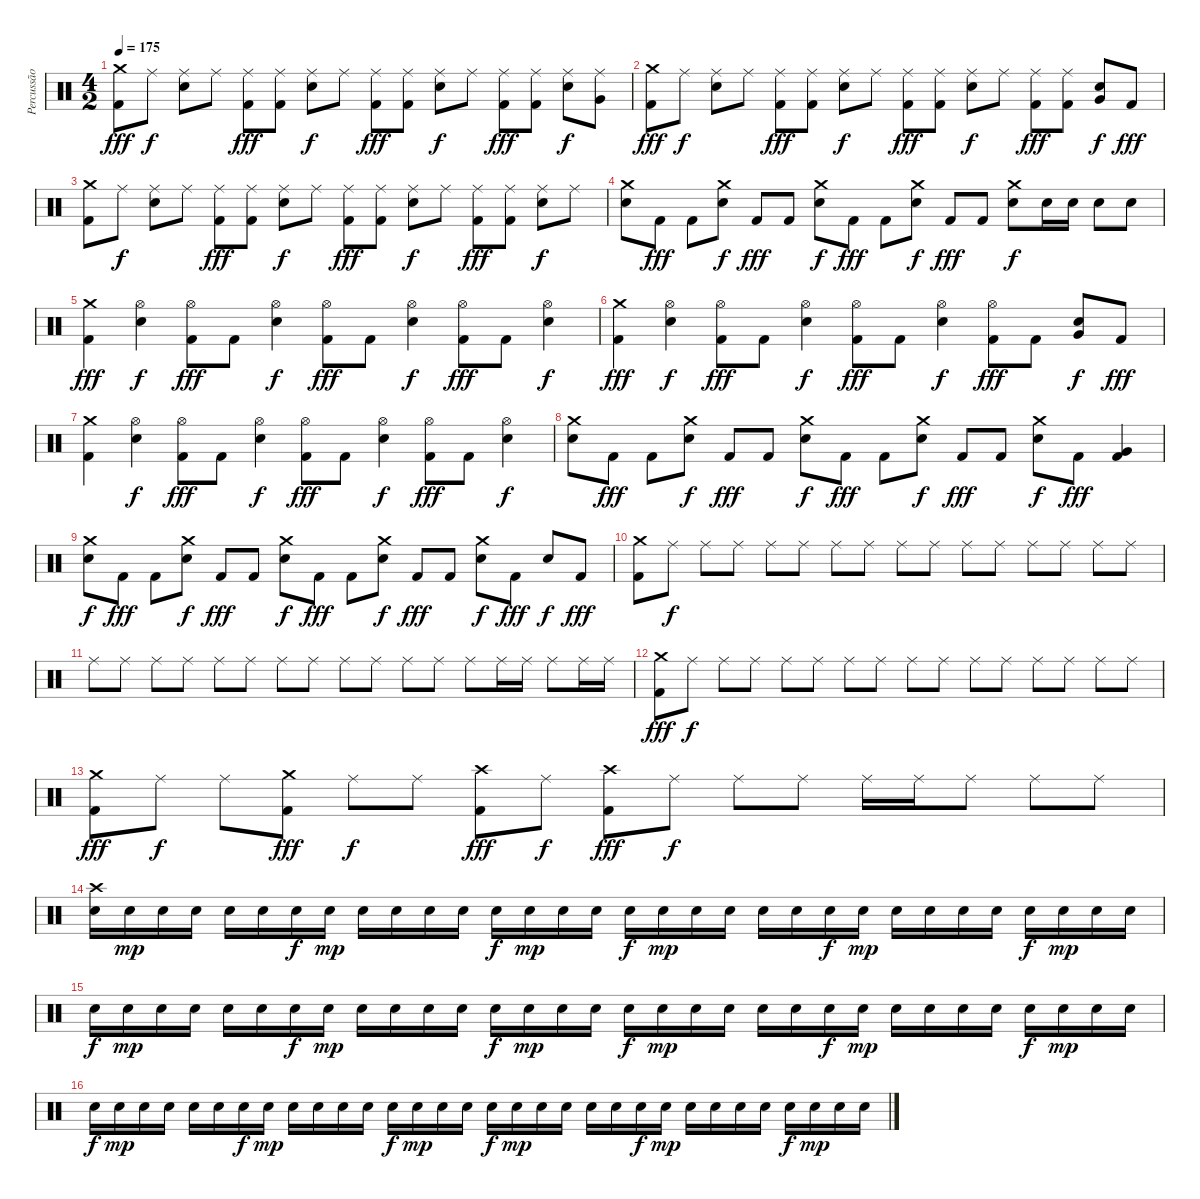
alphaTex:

\track ("Percussão" "Percussão") {instrument percussion}
\staff {score}
\articulation defaults
\ts (4 2)
\tempo 175
\clef neutral
\ks c
("Crash medium (hit)" "Kick (hit) 2").8{dy fff} "Ride (middle)".8{dy f} ("Ride (middle)" "Electric Snare (hit)").8 "Ride (middle)".8 ("Ride (middle)" "Kick (hit) 2").8{dy fff} ("Ride (middle)" "Kick (hit) 2").8 ("Ride (middle)" "Electric Snare (hit)").8{dy f} "Ride (middle)".8 ("Ride (middle)" "Kick (hit) 2").8{dy fff} ("Ride (middle)" "Kick (hit) 2").8 ("Ride (middle)" "Electric Snare (hit)").8{dy f} "Ride (middle)".8 ("Ride (middle)" "Kick (hit) 2").8{dy fff} ("Ride (middle)" "Kick (hit) 2").8 ("Ride (middle)" "Electric Snare (hit)").8{dy f} ("Ride (middle)" "Very Low Tom (hit)").8 |
("Crash medium (hit)" "Kick (hit) 2").8{dy fff} "Ride (middle)".8{dy f} ("Ride (middle)" "Electric Snare (hit)").8 "Ride (middle)".8 ("Ride (middle)" "Kick (hit) 2").8{dy fff} ("Ride (middle)" "Kick (hit) 2").8 ("Ride (middle)" "Electric Snare (hit)").8{dy f} "Ride (middle)".8 ("Ride (middle)" "Kick (hit) 2").8{dy fff} ("Ride (middle)" "Kick (hit) 2").8 ("Ride (middle)" "Electric Snare (hit)").8{dy f} "Ride (middle)".8 ("Ride (middle)" "Kick (hit) 2").8{dy fff} ("Ride (middle)" "Kick (hit) 2").8 ("Very Low Tom (hit)" "Electric Snare (hit)").8{dy f} "Kick (hit) 2".8{dy fff} |
("Crash medium (hit)" "Kick (hit) 2").8 "Ride (middle)".8{dy f} ("Ride (middle)" "Electric Snare (hit)").8 "Ride (middle)".8 ("Ride (middle)" "Kick (hit) 2").8{dy fff} ("Ride (middle)" "Kick (hit) 2").8 ("Ride (middle)" "Electric Snare (hit)").8{dy f} "Ride (middle)".8 ("Ride (middle)" "Kick (hit) 2").8{dy fff} ("Ride (middle)" "Kick (hit) 2").8 ("Ride (middle)" "Electric Snare (hit)").8{dy f} "Ride (middle)".8 ("Ride (middle)" "Kick (hit) 2").8{dy fff} ("Ride (middle)" "Kick (hit) 2").8 ("Ride (middle)" "Electric Snare (hit)").8{dy f} "Ride (middle)".8 |
("Crash medium (hit)" "Electric Snare (hit)").8 "Kick (hit) 2".8{dy fff} "Kick (hit) 2".8 ("Crash medium (hit)" "Electric Snare (hit)").8{dy f} "Kick (hit) 2".8{dy fff} "Kick (hit) 2".8 ("Crash medium (hit)" "Electric Snare (hit)").8{dy f} "Kick (hit) 2".8{dy fff} "Kick (hit) 2".8 ("Crash medium (hit)" "Electric Snare (hit)").8{dy f} "Kick (hit) 2".8{dy fff} "Kick (hit) 2".8 ("Crash medium (hit)" "Electric Snare (hit)").8{dy f} "Electric Snare (hit)".16 "Electric Snare (hit)".16 "Electric Snare (hit)".8 "Electric Snare (hit)".8 |
("Crash medium (hit)" "Kick (hit) 2").4{dy fff} ("Hi-Hat (open)" "Electric Snare (hit)").4{dy f} ("Hi-Hat (open)" "Kick (hit) 2").8{dy fff} "Kick (hit) 2".8 ("Hi-Hat (open)" "Electric Snare (hit)").4{dy f} ("Hi-Hat (open)" "Kick (hit) 2").8{dy fff} "Kick (hit) 2".8 ("Hi-Hat (open)" "Electric Snare (hit)").4{dy f} ("Hi-Hat (open)" "Kick (hit) 2").8{dy fff} "Kick (hit) 2".8 ("Hi-Hat (open)" "Electric Snare (hit)").4{dy f} |
("Crash medium (hit)" "Kick (hit) 2").4{dy fff} ("Hi-Hat (open)" "Electric Snare (hit)").4{dy f} ("Hi-Hat (open)" "Kick (hit) 2").8{dy fff} "Kick (hit) 2".8 ("Hi-Hat (open)" "Electric Snare (hit)").4{dy f} ("Hi-Hat (open)" "Kick (hit) 2").8{dy fff} "Kick (hit) 2".8 ("Hi-Hat (open)" "Electric Snare (hit)").4{dy f} ("Hi-Hat (open)" "Kick (hit) 2").8{dy fff} "Kick (hit) 2".8 ("Very Low Tom (hit)" "Electric Snare (hit)").8{dy f} "Kick (hit) 2".8{dy fff} |
("Crash medium (hit)" "Kick (hit) 2").4 ("Hi-Hat (open)" "Electric Snare (hit)").4{dy f} ("Hi-Hat (open)" "Kick (hit) 2").8{dy fff} "Kick (hit) 2".8 ("Hi-Hat (open)" "Electric Snare (hit)").4{dy f} ("Hi-Hat (open)" "Kick (hit) 2").8{dy fff} "Kick (hit) 2".8 ("Hi-Hat (open)" "Electric Snare (hit)").4{dy f} ("Hi-Hat (open)" "Kick (hit) 2").8{dy fff} "Kick (hit) 2".8 ("Hi-Hat (open)" "Electric Snare (hit)").4{dy f} |
("Crash medium (hit)" "Electric Snare (hit)").8 "Kick (hit) 2".8{dy fff} "Kick (hit) 2".8 ("Crash medium (hit)" "Electric Snare (hit)").8{dy f} "Kick (hit) 2".8{dy fff} "Kick (hit) 2".8 ("Crash medium (hit)" "Electric Snare (hit)").8{dy f} "Kick (hit) 2".8{dy fff} "Kick (hit) 2".8 ("Crash medium (hit)" "Electric Snare (hit)").8{dy f} "Kick (hit) 2".8{dy fff} "Kick (hit) 2".8 ("Crash medium (hit)" "Electric Snare (hit)").8{dy f} "Kick (hit) 2".8{dy fff} ("Very Low Tom (hit)" "Kick (hit) 2").4 |
("Crash medium (hit)" "Electric Snare (hit)").8{dy f} "Kick (hit) 2".8{dy fff} "Kick (hit) 2".8 ("Crash medium (hit)" "Electric Snare (hit)").8{dy f} "Kick (hit) 2".8{dy fff} "Kick (hit) 2".8 ("Crash medium (hit)" "Electric Snare (hit)").8{dy f} "Kick (hit) 2".8{dy fff} "Kick (hit) 2".8 ("Crash medium (hit)" "Electric Snare (hit)").8{dy f} "Kick (hit) 2".8{dy fff} "Kick (hit) 2".8 ("Crash medium (hit)" "Electric Snare (hit)").8{dy f} "Kick (hit) 2".8{dy fff} "Electric Snare (hit)".8{dy f} "Kick (hit) 2".8{dy fff} |
("Crash medium (hit)" "Kick (hit) 2").8 "Ride (middle)".8{dy f} "Ride (middle)".8 "Ride (middle)".8 "Ride (middle)".8 "Ride (middle)".8 "Ride (middle)".8 "Ride (middle)".8 "Ride (middle)".8 "Ride (middle)".8 "Ride (middle)".8 "Ride (middle)".8 "Ride (middle)".8 "Ride (middle)".8 "Ride (middle)".8 "Ride (middle)".8 |
"Ride (middle)".8 "Ride (middle)".8 "Ride (middle)".8 "Ride (middle)".8 "Ride (middle)".8 "Ride (middle)".8 "Ride (middle)".8 "Ride (middle)".8 "Ride (middle)".8 "Ride (middle)".8 "Ride (middle)".8 "Ride (middle)".8 "Ride (middle)".8 "Ride (middle)".16 "Ride (middle)".16 "Ride (middle)".8 "Ride (middle)".16 "Ride (middle)".16 |
("Crash medium (hit)" "Kick (hit) 2").8{dy fff} "Ride (middle)".8{dy f} "Ride (middle)".8 "Ride (middle)".8 "Ride (middle)".8 "Ride (middle)".8 "Ride (middle)".8 "Ride (middle)".8 "Ride (middle)".8 "Ride (middle)".8 "Ride (middle)".8 "Ride (middle)".8 "Ride (middle)".8 "Ride (middle)".8 "Ride (middle)".8 "Ride (middle)".8 |
("Crash medium (hit)" "Kick (hit) 2").8{dy fff} "Ride (middle)".8{dy f} "Ride (middle)".8 ("Crash medium (hit)" "Kick (hit) 2").8{dy fff} "Ride (middle)".8{dy f} "Ride (middle)".8 ("Crash high (hit)" "Kick (hit) 2").8{dy fff} "Ride (middle)".8{dy f} ("Crash high (hit)" "Kick (hit) 2").8{dy fff} "Ride (middle)".8{dy f} "Ride (middle)".8 "Ride (middle)".8 "Ride (middle)".16 "Ride (middle)".16 "Ride (middle)".8 "Ride (middle)".8 "Ride (middle)".8 |
("Crash high (hit)" "Electric Snare (hit)").16 "Electric Snare (hit)".16{dy mp} "Electric Snare (hit)".16 "Electric Snare (hit)".16 "Electric Snare (hit)".16 "Electric Snare (hit)".16 "Electric Snare (hit)".16{dy f} "Electric Snare (hit)".16{dy mp} "Electric Snare (hit)".16 "Electric Snare (hit)".16 "Electric Snare (hit)".16 "Electric Snare (hit)".16 "Electric Snare (hit)".16{dy f} "Electric Snare (hit)".16{dy mp} "Electric Snare (hit)".16 "Electric Snare (hit)".16 "Electric Snare (hit)".16{dy f} "Electric Snare (hit)".16{dy mp} "Electric Snare (hit)".16 "Electric Snare (hit)".16 "Electric Snare (hit)".16 "Electric Snare (hit)".16 "Electric Snare (hit)".16{dy f} "Electric Snare (hit)".16{dy mp} "Electric Snare (hit)".16 "Electric Snare (hit)".16 "Electric Snare (hit)".16 "Electric Snare (hit)".16 "Electric Snare (hit)".16{dy f} "Electric Snare (hit)".16{dy mp} "Electric Snare (hit)".16 "Electric Snare (hit)".16 |
"Electric Snare (hit)".16{dy f} "Electric Snare (hit)".16{dy mp} "Electric Snare (hit)".16 "Electric Snare (hit)".16 "Electric Snare (hit)".16 "Electric Snare (hit)".16 "Electric Snare (hit)".16{dy f} "Electric Snare (hit)".16{dy mp} "Electric Snare (hit)".16 "Electric Snare (hit)".16 "Electric Snare (hit)".16 "Electric Snare (hit)".16 "Electric Snare (hit)".16{dy f} "Electric Snare (hit)".16{dy mp} "Electric Snare (hit)".16 "Electric Snare (hit)".16 "Electric Snare (hit)".16{dy f} "Electric Snare (hit)".16{dy mp} "Electric Snare (hit)".16 "Electric Snare (hit)".16 "Electric Snare (hit)".16 "Electric Snare (hit)".16 "Electric Snare (hit)".16{dy f} "Electric Snare (hit)".16{dy mp} "Electric Snare (hit)".16 "Electric Snare (hit)".16 "Electric Snare (hit)".16 "Electric Snare (hit)".16 "Electric Snare (hit)".16{dy f} "Electric Snare (hit)".16{dy mp} "Electric Snare (hit)".16 "Electric Snare (hit)".16 |
"Electric Snare (hit)".16{dy f} "Electric Snare (hit)".16{dy mp} "Electric Snare (hit)".16 "Electric Snare (hit)".16 "Electric Snare (hit)".16 "Electric Snare (hit)".16 "Electric Snare (hit)".16{dy f} "Electric Snare (hit)".16{dy mp} "Electric Snare (hit)".16 "Electric Snare (hit)".16 "Electric Snare (hit)".16 "Electric Snare (hit)".16 "Electric Snare (hit)".16{dy f} "Electric Snare (hit)".16{dy mp} "Electric Snare (hit)".16 "Electric Snare (hit)".16 "Electric Snare (hit)".16{dy f} "Electric Snare (hit)".16{dy mp} "Electric Snare (hit)".16 "Electric Snare (hit)".16 "Electric Snare (hit)".16 "Electric Snare (hit)".16 "Electric Snare (hit)".16{dy f} "Electric Snare (hit)".16{dy mp} "Electric Snare (hit)".16 "Electric Snare (hit)".16 "Electric Snare (hit)".16 "Electric Snare (hit)".16 "Electric Snare (hit)".16{dy f} "Electric Snare (hit)".16{dy mp} "Electric Snare (hit)".16 "Electric Snare (hit)".16
